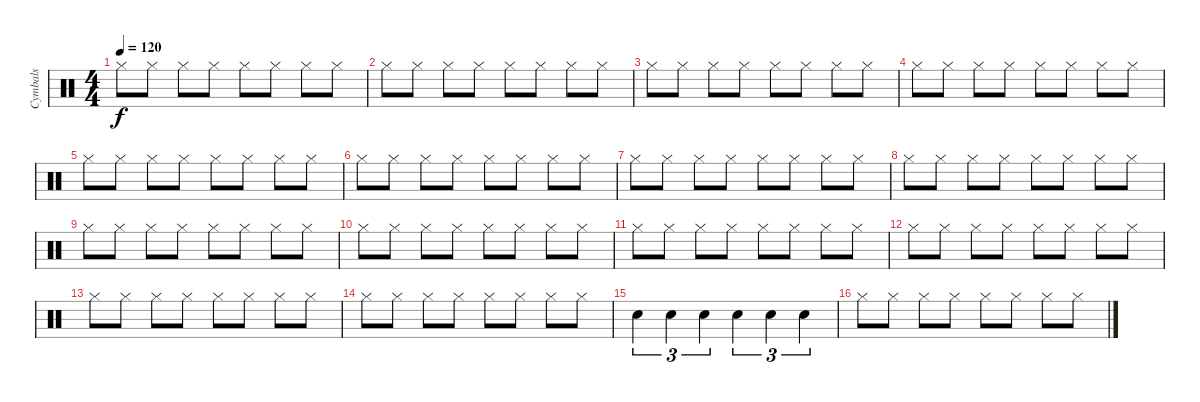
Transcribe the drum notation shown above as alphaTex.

\track ("Cymbals" "Cymbals") {instrument percussion}
\staff {score}
\articulation defaults
\ts (4 4)
\tempo 120
\clef neutral
\ks c "Hi-Hat (closed)".8{dy f} "Hi-Hat (closed)".8 "Hi-Hat (closed)".8 "Hi-Hat (closed)".8 "Hi-Hat (closed)".8 "Hi-Hat (closed)".8 "Hi-Hat (closed)".8 "Hi-Hat (closed)".8
|
"Hi-Hat (closed)".8 "Hi-Hat (closed)".8 "Hi-Hat (closed)".8 "Hi-Hat (closed)".8 "Hi-Hat (closed)".8 "Hi-Hat (closed)".8 "Hi-Hat (closed)".8 "Hi-Hat (closed)".8 |
"Hi-Hat (closed)".8 "Hi-Hat (closed)".8 "Hi-Hat (closed)".8 "Hi-Hat (closed)".8 "Hi-Hat (closed)".8 "Hi-Hat (closed)".8 "Hi-Hat (closed)".8 "Hi-Hat (closed)".8 |
"Hi-Hat (closed)".8 "Hi-Hat (closed)".8 "Hi-Hat (closed)".8 "Hi-Hat (closed)".8 "Hi-Hat (closed)".8 "Hi-Hat (closed)".8 "Hi-Hat (closed)".8 "Hi-Hat (closed)".8 |
"Hi-Hat (closed)".8 "Hi-Hat (closed)".8 "Hi-Hat (closed)".8 "Hi-Hat (closed)".8 "Hi-Hat (closed)".8 "Hi-Hat (closed)".8 "Hi-Hat (closed)".8 "Hi-Hat (closed)".8 |
"Hi-Hat (closed)".8 "Hi-Hat (closed)".8 "Hi-Hat (closed)".8 "Hi-Hat (closed)".8 "Hi-Hat (closed)".8 "Hi-Hat (closed)".8 "Hi-Hat (closed)".8 "Hi-Hat (closed)".8 |
"Hi-Hat (closed)".8 "Hi-Hat (closed)".8 "Hi-Hat (closed)".8 "Hi-Hat (closed)".8 "Hi-Hat (closed)".8 "Hi-Hat (closed)".8 "Hi-Hat (closed)".8 "Hi-Hat (closed)".8 |
"Hi-Hat (closed)".8 "Hi-Hat (closed)".8 "Hi-Hat (closed)".8 "Hi-Hat (closed)".8 "Hi-Hat (closed)".8 "Hi-Hat (closed)".8 "Hi-Hat (closed)".8 "Hi-Hat (closed)".8 |
"Hi-Hat (closed)".8 "Hi-Hat (closed)".8 "Hi-Hat (closed)".8 "Hi-Hat (closed)".8 "Hi-Hat (closed)".8 "Hi-Hat (closed)".8 "Hi-Hat (closed)".8 "Hi-Hat (closed)".8 |
"Hi-Hat (closed)".8 "Hi-Hat (closed)".8 "Hi-Hat (closed)".8 "Hi-Hat (closed)".8 "Hi-Hat (closed)".8 "Hi-Hat (closed)".8 "Hi-Hat (closed)".8 "Hi-Hat (closed)".8 |
"Hi-Hat (closed)".8 "Hi-Hat (closed)".8 "Hi-Hat (closed)".8 "Hi-Hat (closed)".8 "Hi-Hat (closed)".8 "Hi-Hat (closed)".8 "Hi-Hat (closed)".8 "Hi-Hat (closed)".8 |
"Hi-Hat (closed)".8 "Hi-Hat (closed)".8 "Hi-Hat (closed)".8 "Hi-Hat (closed)".8 "Hi-Hat (closed)".8 "Hi-Hat (closed)".8 "Hi-Hat (closed)".8 "Hi-Hat (closed)".8 |
"Hi-Hat (closed)".8 "Hi-Hat (closed)".8 "Hi-Hat (closed)".8 "Hi-Hat (closed)".8 "Hi-Hat (closed)".8 "Hi-Hat (closed)".8 "Hi-Hat (closed)".8 "Hi-Hat (closed)".8 |
"Hi-Hat (closed)".8 "Hi-Hat (closed)".8 "Hi-Hat (closed)".8 "Hi-Hat (closed)".8 "Hi-Hat (closed)".8 "Hi-Hat (closed)".8 "Hi-Hat (closed)".8 "Hi-Hat (closed)".8 |
"Snare (hit) 2".4{tu (3 2)} "Snare (hit) 2".4{tu (3 2)} "Snare (hit) 2".4{tu (3 2)} "Snare (hit) 2".4{tu (3 2)} "Snare (hit) 2".4{tu (3 2)} "Snare (hit) 2".4{tu (3 2)} |
"Hi-Hat (closed)".8 "Hi-Hat (closed)".8 "Hi-Hat (closed)".8 "Hi-Hat (closed)".8 "Hi-Hat (closed)".8 "Hi-Hat (closed)".8 "Hi-Hat (closed)".8 "Hi-Hat (closed)".8
